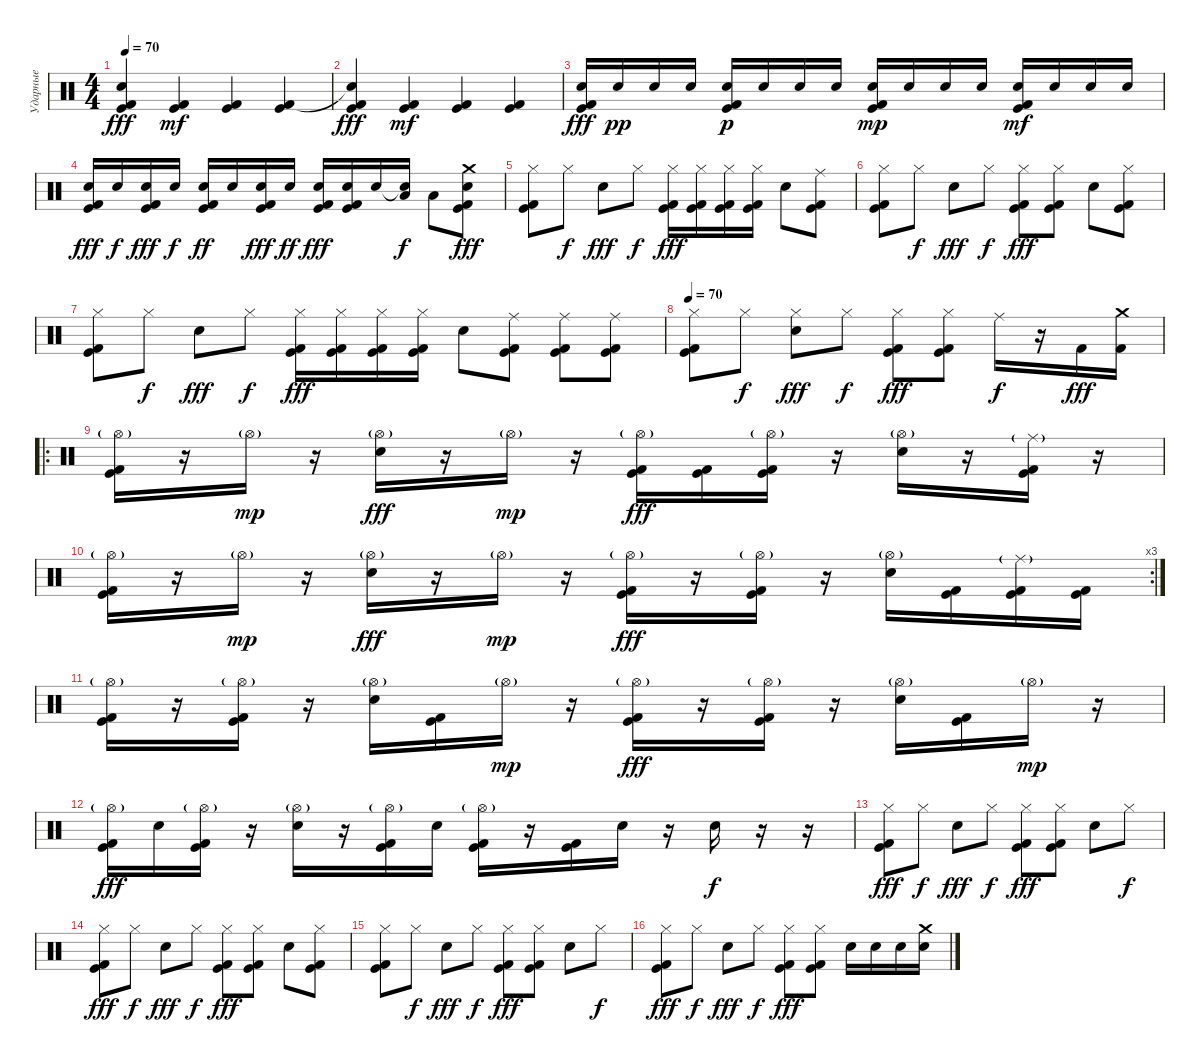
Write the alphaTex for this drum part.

\track ("Ударные" "Ударные") {instrument percussion}
\staff {score}
\articulation defaults
\ts (4 4)
\tempo 70
\clef neutral
\ks c
("Snare (hit)"{t} "Kick (hit)" "Kick (hit) 2").4{dy fff} ("Kick (hit)" "Kick (hit) 2").4{dy mf} ("Kick (hit)" "Kick (hit) 2").4 ("Kick (hit) 2" "Kick (hit)").4 |
("Snare (hit)"{t} "Kick (hit)" "Kick (hit) 2").4{dy fff} ("Kick (hit)" "Kick (hit) 2").4{dy mf} ("Kick (hit)" "Kick (hit) 2").4 ("Kick (hit) 2" "Kick (hit)").4 |
("Kick (hit)" "Snare (hit) 2" "Kick (hit) 2").16{dy fff} "Snare (hit) 2".16{dy pp} "Snare (hit) 2".16 "Snare (hit) 2".16 ("Kick (hit) 2" "Kick (hit)" "Snare (hit) 2").16{dy p} "Snare (hit) 2".16 "Snare (hit) 2".16 "Snare (hit) 2".16 ("Kick (hit) 2" "Kick (hit)" "Snare (hit) 2").16{dy mp} "Snare (hit) 2".16 "Snare (hit) 2".16 "Snare (hit) 2".16 ("Kick (hit) 2" "Kick (hit)" "Snare (hit) 2").16{dy mf} "Snare (hit) 2".16 "Snare (hit) 2".16 "Snare (hit) 2".16 |
("Kick (hit) 2" "Snare (hit) 2" "Kick (hit)").16{dy fff} "Snare (hit) 2".16{dy f} ("Kick (hit)" "Kick (hit) 2" "Snare (hit) 2").16{dy fff} "Snare (hit) 2".16{dy f} ("Kick (hit) 2" "Kick (hit)" "Snare (hit) 2").16{dy ff} "Snare (hit) 2".16 ("Kick (hit)" "Snare (hit) 2" "Kick (hit) 2").16{dy fff} "Snare (hit) 2".16{dy ff} ("Kick (hit) 2" "Snare (hit) 2" "Kick (hit)").16{dy fff} ("Snare (hit) 2" "Kick (hit)" "Kick (hit) 2").16 "Snare (hit) 2".16 ("Snare (hit) 2"{t} "Low Tom (hit)").16{dy f} "Low Floor Tom (hit)".8 ("Crash medium (hit)" "Kick (hit) 2" "Kick (hit)" "Snare (hit) 2").8{dy fff} |
("Hi-Hat (closed)" "Kick (hit)" "Kick (hit) 2").8 "Hi-Hat (closed)".8{dy f} "Snare (hit) 2".8{dy fff} "Hi-Hat (closed)".8{dy f} ("Hi-Hat (closed)" "Kick (hit)" "Kick (hit) 2").16{dy fff} ("Hi-Hat (closed)" "Kick (hit)" "Kick (hit) 2").16 ("Hi-Hat (closed)" "Kick (hit) 2" "Kick (hit)").16 ("Hi-Hat (closed)" "Kick (hit) 2" "Kick (hit)").16 "Snare (hit) 2".8 ("Ride (middle)" "Kick (hit)" "Kick (hit) 2").8 |
("Hi-Hat (closed)" "Kick (hit)" "Kick (hit) 2").8 "Hi-Hat (closed)".8{dy f} "Snare (hit) 2".8{dy fff} "Hi-Hat (closed)".8{dy f} ("Hi-Hat (closed)" "Kick (hit)" "Kick (hit) 2").8{dy fff} ("Hi-Hat (closed)" "Kick (hit)" "Kick (hit) 2").8 "Snare (hit) 2".8 ("Hi-Hat (closed)" "Kick (hit)" "Kick (hit) 2").8 |
("Hi-Hat (closed)" "Kick (hit)" "Kick (hit) 2").8 "Hi-Hat (closed)".8{dy f} "Snare (hit) 2".8{dy fff} "Hi-Hat (closed)".8{dy f} ("Hi-Hat (closed)" "Kick (hit)" "Kick (hit) 2").16{dy fff} ("Hi-Hat (closed)" "Kick (hit)" "Kick (hit) 2").16 ("Hi-Hat (closed)" "Kick (hit) 2" "Kick (hit)").16 ("Hi-Hat (closed)" "Kick (hit) 2" "Kick (hit)").16 "Snare (hit) 2".8 ("Ride (middle)" "Kick (hit)" "Kick (hit) 2").8 ("Ride (middle)" "Kick (hit)" "Kick (hit) 2").8 ("Ride (middle)" "Kick (hit) 2" "Kick (hit)").8 |
\tempo 70
("Hi-Hat (closed)" "Kick (hit)" "Kick (hit) 2").8 "Hi-Hat (closed)".8{dy f} ("Hi-Hat (closed)" "Snare (hit) 2").8{dy fff} "Hi-Hat (closed)".8{dy f} ("Hi-Hat (closed)" "Kick (hit)" "Kick (hit) 2").8{dy fff} ("Hi-Hat (closed)" "Kick (hit)" "Kick (hit) 2").8 "Ride (middle)".16{dy f} r.16 "Kick (hit) 2".16{dy fff} ("Crash medium (hit)" "Kick (hit) 2").16 |
\ro
("Hi-Hat (open)"{g} "Kick (hit) 2" "Kick (hit)").16 r.16 "Hi-Hat (open)"{g}.16{dy mp} r.16 ("Hi-Hat (open)"{g} "Snare (hit) 2").16{dy fff} r.16 "Hi-Hat (open)"{g}.16{dy mp} r.16 ("Hi-Hat (open)"{g} "Kick (hit) 2" "Kick (hit)").16{dy fff} ("Kick (hit)" "Kick (hit) 2").16 ("Hi-Hat (open)"{g} "Kick (hit) 2" "Kick (hit)").16 r.16 ("Hi-Hat (open)"{g} "Snare (hit) 2").16 r.16 ("Ride (middle)"{g} "Kick (hit) 2" "Kick (hit)").16 r.16 |
\rc 3
("Hi-Hat (open)"{g} "Kick (hit) 2" "Kick (hit)").16 r.16 "Hi-Hat (open)"{g}.16{dy mp} r.16 ("Hi-Hat (open)"{g} "Snare (hit) 2").16{dy fff} r.16 "Hi-Hat (open)"{g}.16{dy mp} r.16 ("Hi-Hat (open)"{g} "Kick (hit) 2" "Kick (hit)").16{dy fff} r.16 ("Hi-Hat (open)"{g} "Kick (hit) 2" "Kick (hit)").16 r.16 ("Hi-Hat (open)"{g} "Snare (hit) 2").16 ("Kick (hit) 2" "Kick (hit)").16 ("Ride (middle)"{g} "Kick (hit)" "Kick (hit) 2").16 ("Kick (hit)" "Kick (hit) 2").16 |
("Hi-Hat (open)"{g} "Kick (hit) 2" "Kick (hit)").16 r.16 ("Hi-Hat (open)"{g} "Kick (hit) 2" "Kick (hit)").16 r.16 ("Hi-Hat (open)"{g} "Snare (hit) 2").16 ("Kick (hit) 2" "Kick (hit)").16 "Hi-Hat (open)"{g}.16{dy mp} r.16 ("Hi-Hat (open)"{g} "Kick (hit) 2" "Kick (hit)").16{dy fff} r.16 ("Hi-Hat (open)"{g} "Kick (hit) 2" "Kick (hit)").16 r.16 ("Hi-Hat (open)"{g} "Snare (hit) 2").16 ("Kick (hit) 2" "Kick (hit)").16 "Hi-Hat (open)"{g}.16{dy mp} r.16 |
("Hi-Hat (open)"{g} "Kick (hit) 2" "Kick (hit)").16{dy fff} "Snare (hit) 2".16 ("Hi-Hat (open)"{g} "Kick (hit) 2" "Kick (hit)").16 r.16 ("Hi-Hat (open)"{g} "Snare (hit) 2").16 r.16 ("Hi-Hat (open)"{g} "Kick (hit) 2" "Kick (hit)").16 "Snare (hit) 2".16 ("Hi-Hat (open)"{g} "Kick (hit) 2" "Kick (hit)").16 r.16 ("Kick (hit)" "Kick (hit) 2").16 "Snare (hit) 2".16 r.16 "Snare (hit) 2".16{dy f} r.16 r.16 |
("Hi-Hat (closed)" "Kick (hit)" "Kick (hit) 2").8{dy fff} "Hi-Hat (closed)".8{dy f} "Snare (hit) 2".8{dy fff} "Hi-Hat (closed)".8{dy f} ("Hi-Hat (closed)" "Kick (hit)" "Kick (hit) 2").8{dy fff} ("Hi-Hat (closed)" "Kick (hit)" "Kick (hit) 2").8 "Snare (hit) 2".8 "Hi-Hat (closed)".8{dy f} |
("Hi-Hat (closed)" "Kick (hit)" "Kick (hit) 2").8{dy fff} "Hi-Hat (closed)".8{dy f} "Snare (hit) 2".8{dy fff} "Hi-Hat (closed)".8{dy f} ("Hi-Hat (closed)" "Kick (hit)" "Kick (hit) 2").8{dy fff} ("Hi-Hat (closed)" "Kick (hit)" "Kick (hit) 2").8 "Snare (hit) 2".8 ("Hi-Hat (closed)" "Kick (hit)" "Kick (hit) 2").8 |
("Hi-Hat (closed)" "Kick (hit)" "Kick (hit) 2").8 "Hi-Hat (closed)".8{dy f} "Snare (hit) 2".8{dy fff} "Hi-Hat (closed)".8{dy f} ("Hi-Hat (closed)" "Kick (hit)" "Kick (hit) 2").8{dy fff} ("Hi-Hat (closed)" "Kick (hit)" "Kick (hit) 2").8 "Snare (hit) 2".8 "Hi-Hat (closed)".8{dy f} |
("Hi-Hat (closed)" "Kick (hit)" "Kick (hit) 2").8{dy fff} "Hi-Hat (closed)".8{dy f} "Snare (hit) 2".8{dy fff} "Hi-Hat (closed)".8{dy f} ("Hi-Hat (closed)" "Kick (hit)" "Kick (hit) 2").8{dy fff} ("Hi-Hat (closed)" "Kick (hit)" "Kick (hit) 2").8 "Snare (hit) 2".16 "Snare (hit) 2".16 "Snare (hit) 2".16 ("Crash medium (hit)" "Snare (hit) 2").16
